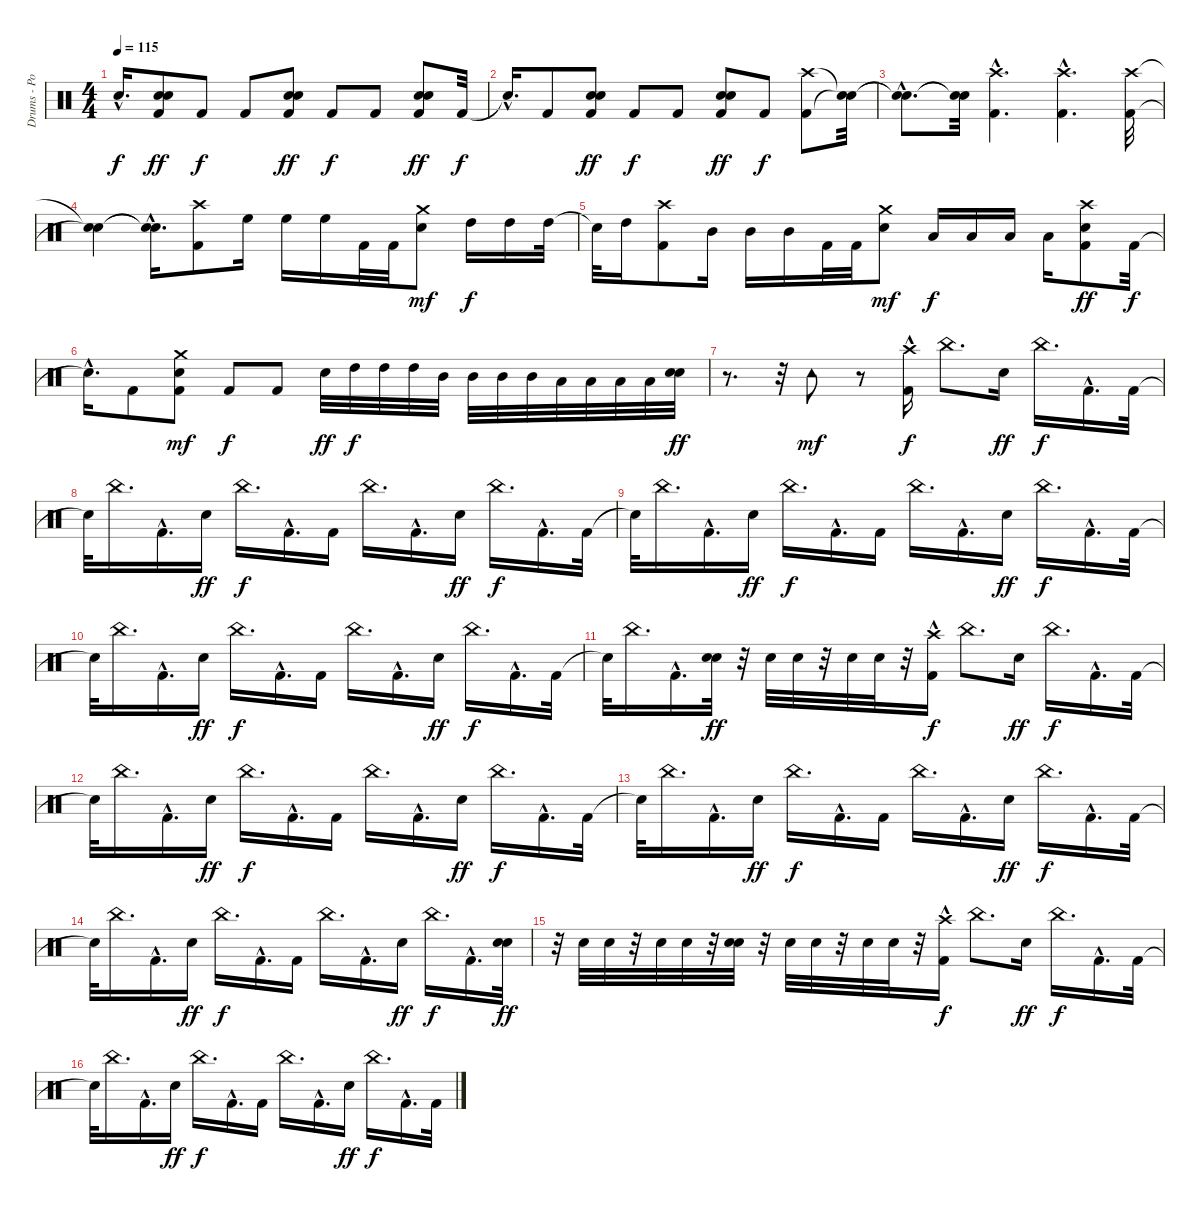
\track ("Drums - Portnoy" "Drums - Po") {instrument percussion}
\staff {score}
\articulation defaults
\ts (4 4)
\tempo 115
\clef neutral
\ks c "Snare (hit)"{hac t}.16{d dy f}
("Kick (hit) 2" "Electric Snare (hit)" "Electric Snare (hit)").8{dy ff} "Kick (hit) 2".8{dy f} "Kick (hit) 2".8 ("Kick (hit) 2" "Electric Snare (hit)" "Electric Snare (hit)").8{dy ff} "Kick (hit) 2".8{dy f} "Kick (hit) 2".8 ("Kick (hit) 2" "Electric Snare (hit)" "Electric Snare (hit)").8{dy ff} "Kick (hit) 2".32{dy f} |
"Snare (hit)"{hac t}.16{d} "Kick (hit) 2".8 ("Kick (hit) 2" "Electric Snare (hit)" "Electric Snare (hit)").8{dy ff} "Kick (hit) 2".8{dy f} "Kick (hit) 2".8 ("Kick (hit) 2" "Electric Snare (hit)" "Electric Snare (hit)").8{dy ff} "Kick (hit) 2".8{dy f} ("Kick (hit) 2" "Crash high (hit)").8 ("Snare (hit)"{t} "Snare (hit)"{t}).32 |
("Snare (hit)"{hac t} "Snare (hit)"{hac t}).8{d} ("Snare (hit)"{t} "Snare (hit)"{t}).32 ("Crash high (hit)"{hac} "Kick (hit) 2"{hac}).4{d volume 12} ("Kick (hit) 2"{hac} "Crash high (hit)"{hac}).4{d volume 12} ("Crash high (hit)" "Kick (hit) 2").32{volume 12} |
("Snare (hit)"{t} "Snare (hit)"{t}).4 ("Snare (hit)"{hac t} "Snare (hit)"{hac t}).16{d} ("Kick (hit) 2" "Crash high (hit)").8{volume 12} "High Floor Tom (hit)".16 "High Floor Tom (hit)".16 "High Floor Tom (hit)".16 "Kick (hit) 2".32 "Kick (hit) 2".32 ("Electric Snare (hit)" "Crash medium (hit)").8{dy mf} "High Tom (hit)".16{dy f} "High Tom (hit)".16 "High Tom (hit)".32 |
"Snare (hit)"{t}.32 "High Tom (hit)".16 ("Crash high (hit)" "Kick (hit) 2").8 "Mid Tom (hit)".16 "Mid Tom (hit)".16 "Mid Tom (hit)".16 "Kick (hit) 2".32 "Kick (hit) 2".32 ("Electric Snare (hit)" "Crash medium (hit)").8{dy mf} "Low Tom (hit)".16{dy f} "Low Tom (hit)".16 "Low Tom (hit)".16 "Low Tom (hit)".16 ("Kick (hit) 2" "Crash high (hit)" "Electric Snare (hit)").8{dy ff} "Kick (hit) 2".32{dy f} |
"Snare (hit)"{hac t}.16{d} "Kick (hit) 2".8 ("Kick (hit) 2" "Electric Snare (hit)" "Crash medium (hit)").8{dy mf} "Kick (hit) 2".8{dy f} "Kick (hit) 2".8 "Electric Snare (hit)".32{dy ff} "High Tom (hit)".32{dy f} "High Tom (hit)".32 "High Tom (hit)".32 "Mid Tom (hit)".32 "Mid Tom (hit)".32 "Mid Tom (hit)".32 "Mid Tom (hit)".32 "Low Tom (hit)".32 "Low Tom (hit)".32 "Low Tom (hit)".32 "Low Tom (hit)".32 ("Electric Snare (hit)" "Electric Snare (hit)").32{dy ff} |
r.8{d} r.32 "Tambourine (hit)".8{dy mf} r.8 ("Kick (hit) 2" "Crash high (hit)"{hac}).16{dy f} "China (hit)".8{d} "Electric Snare (hit)".16{dy ff} "China (hit)".16{d dy f} "Kick (hit) 2"{hac}.16{d} "Kick (hit) 2".32 |
"Snare (hit)"{t}.32 "China (hit)".16{d} "Kick (hit) 2"{hac}.16{d} "Electric Snare (hit)".16{dy ff} "China (hit)".16{d dy f} "Kick (hit) 2"{hac}.16{d} "Kick (hit) 2".16 "China (hit)".16{d} "Kick (hit) 2"{hac}.16{d} "Electric Snare (hit)".16{dy ff} "China (hit)".16{d dy f} "Kick (hit) 2"{hac}.16{d} "Kick (hit) 2".32 |
"Snare (hit)"{t}.32 "China (hit)".16{d} "Kick (hit) 2"{hac}.16{d} "Electric Snare (hit)".16{dy ff} "China (hit)".16{d dy f} "Kick (hit) 2"{hac}.16{d} "Kick (hit) 2".16 "China (hit)".16{d} "Kick (hit) 2"{hac}.16{d} "Electric Snare (hit)".16{dy ff} "China (hit)".16{d dy f} "Kick (hit) 2"{hac}.16{d} "Kick (hit) 2".32 |
"Snare (hit)"{t}.32 "China (hit)".16{d} "Kick (hit) 2"{hac}.16{d} "Electric Snare (hit)".16{dy ff} "China (hit)".16{d dy f} "Kick (hit) 2"{hac}.16{d} "Kick (hit) 2".16 "China (hit)".16{d} "Kick (hit) 2"{hac}.16{d} "Electric Snare (hit)".16{dy ff} "China (hit)".16{d dy f} "Kick (hit) 2"{hac}.16{d} "Kick (hit) 2".32 |
"Snare (hit)"{t}.32 "China (hit)".16{d} "Kick (hit) 2"{hac}.16{d} ("Electric Snare (hit)" "Electric Snare (hit)").32{dy ff} r.32 "Electric Snare (hit)".32 "Electric Snare (hit)".32 r.32 "Electric Snare (hit)".32 "Electric Snare (hit)".32 r.32 ("Crash high (hit)"{hac} "Kick (hit) 2").16{dy f} "China (hit)".8{d} "Electric Snare (hit)".16{dy ff} "China (hit)".16{d dy f} "Kick (hit) 2"{hac}.16{d} "Kick (hit) 2".32 |
"Snare (hit)"{t}.32 "China (hit)".16{d} "Kick (hit) 2"{hac}.16{d} "Electric Snare (hit)".16{dy ff} "China (hit)".16{d dy f} "Kick (hit) 2"{hac}.16{d} "Kick (hit) 2".16 "China (hit)".16{d} "Kick (hit) 2"{hac}.16{d} "Electric Snare (hit)".16{dy ff} "China (hit)".16{d dy f} "Kick (hit) 2"{hac}.16{d} "Kick (hit) 2".32 |
"Snare (hit)"{t}.32 "China (hit)".16{d} "Kick (hit) 2"{hac}.16{d} "Electric Snare (hit)".16{dy ff} "China (hit)".16{d dy f} "Kick (hit) 2"{hac}.16{d} "Kick (hit) 2".16 "China (hit)".16{d} "Kick (hit) 2"{hac}.16{d} "Electric Snare (hit)".16{dy ff} "China (hit)".16{d dy f} "Kick (hit) 2"{hac}.16{d} "Kick (hit) 2".32 |
"Snare (hit)"{t}.32 "China (hit)".16{d} "Kick (hit) 2"{hac}.16{d} "Electric Snare (hit)".16{dy ff} "China (hit)".16{d dy f} "Kick (hit) 2"{hac}.16{d} "Kick (hit) 2".16 "China (hit)".16{d} "Kick (hit) 2"{hac}.16{d} "Electric Snare (hit)".16{dy ff} "China (hit)".16{d dy f} "Kick (hit) 2"{hac}.16{d} ("Electric Snare (hit)" "Electric Snare (hit)").32{dy ff} |
r.32 "Electric Snare (hit)".32 "Electric Snare (hit)".32 r.32 "Electric Snare (hit)".32 "Electric Snare (hit)".32 r.32 ("Electric Snare (hit)" "Electric Snare (hit)").32 r.32 "Electric Snare (hit)".32 "Electric Snare (hit)".32 r.32 "Electric Snare (hit)".32 "Electric Snare (hit)".32 r.32 ("Crash high (hit)"{hac} "Kick (hit) 2").16{dy f} "China (hit)".8{d} "Electric Snare (hit)".16{dy ff} "China (hit)".16{d dy f} "Kick (hit) 2"{hac}.16{d} "Kick (hit) 2".32 |
"Snare (hit)"{t}.32 "China (hit)".16{d} "Kick (hit) 2"{hac}.16{d} "Electric Snare (hit)".16{dy ff} "China (hit)".16{d dy f} "Kick (hit) 2"{hac}.16{d} "Kick (hit) 2".16 "China (hit)".16{d} "Kick (hit) 2"{hac}.16{d} "Electric Snare (hit)".16{dy ff} "China (hit)".16{d dy f} "Kick (hit) 2"{hac}.16{d} "Kick (hit) 2".32
